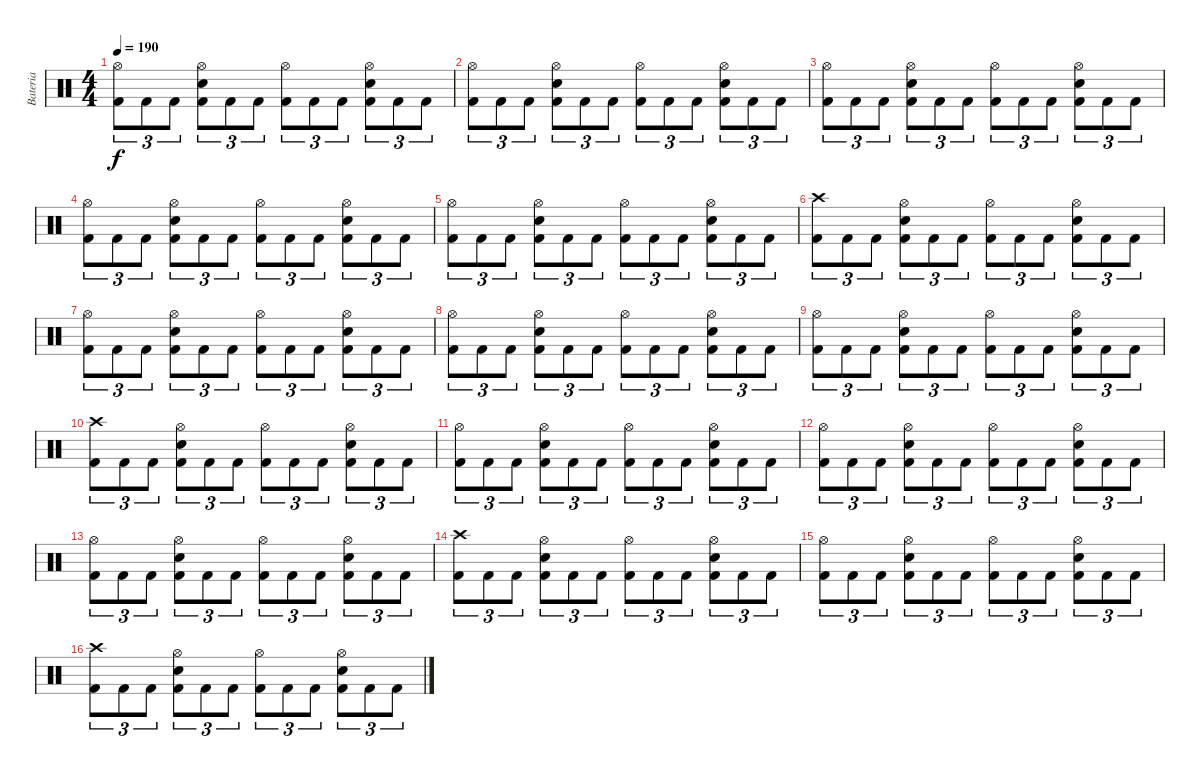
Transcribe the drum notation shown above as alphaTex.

\track ("Bateria" "Bateria") {instrument percussion}
\staff {score}
\articulation defaults
\ts (4 4)
\tempo 190
\clef neutral
\ks c
("Hi-Hat (open)" "Kick (hit) 2").8{tu (3 2) dy f} "Kick (hit) 2".8{tu (3 2)} "Kick (hit) 2".8{tu (3 2)} ("Hi-Hat (open)" "Electric Snare (hit)" "Kick (hit) 2").8{tu (3 2)} "Kick (hit) 2".8{tu (3 2)} "Kick (hit) 2".8{tu (3 2)} ("Hi-Hat (open)" "Kick (hit) 2").8{tu (3 2)} "Kick (hit) 2".8{tu (3 2)} "Kick (hit) 2".8{tu (3 2)} ("Hi-Hat (open)" "Electric Snare (hit)" "Kick (hit) 2").8{tu (3 2)} "Kick (hit) 2".8{tu (3 2)} "Kick (hit) 2".8{tu (3 2)} |
("Hi-Hat (open)" "Kick (hit) 2").8{tu (3 2)} "Kick (hit) 2".8{tu (3 2)} "Kick (hit) 2".8{tu (3 2)} ("Hi-Hat (open)" "Electric Snare (hit)" "Kick (hit) 2").8{tu (3 2)} "Kick (hit) 2".8{tu (3 2)} "Kick (hit) 2".8{tu (3 2)} ("Hi-Hat (open)" "Kick (hit) 2").8{tu (3 2)} "Kick (hit) 2".8{tu (3 2)} "Kick (hit) 2".8{tu (3 2)} ("Hi-Hat (open)" "Electric Snare (hit)" "Kick (hit) 2").8{tu (3 2)} "Kick (hit) 2".8{tu (3 2)} "Kick (hit) 2".8{tu (3 2)} |
("Hi-Hat (open)" "Kick (hit) 2").8{tu (3 2)} "Kick (hit) 2".8{tu (3 2)} "Kick (hit) 2".8{tu (3 2)} ("Hi-Hat (open)" "Electric Snare (hit)" "Kick (hit) 2").8{tu (3 2)} "Kick (hit) 2".8{tu (3 2)} "Kick (hit) 2".8{tu (3 2)} ("Hi-Hat (open)" "Kick (hit) 2").8{tu (3 2)} "Kick (hit) 2".8{tu (3 2)} "Kick (hit) 2".8{tu (3 2)} ("Hi-Hat (open)" "Electric Snare (hit)" "Kick (hit) 2").8{tu (3 2)} "Kick (hit) 2".8{tu (3 2)} "Kick (hit) 2".8{tu (3 2)} |
("Hi-Hat (open)" "Kick (hit) 2").8{tu (3 2)} "Kick (hit) 2".8{tu (3 2)} "Kick (hit) 2".8{tu (3 2)} ("Hi-Hat (open)" "Electric Snare (hit)" "Kick (hit) 2").8{tu (3 2)} "Kick (hit) 2".8{tu (3 2)} "Kick (hit) 2".8{tu (3 2)} ("Hi-Hat (open)" "Kick (hit) 2").8{tu (3 2)} "Kick (hit) 2".8{tu (3 2)} "Kick (hit) 2".8{tu (3 2)} ("Hi-Hat (open)" "Electric Snare (hit)" "Kick (hit) 2").8{tu (3 2)} "Kick (hit) 2".8{tu (3 2)} "Kick (hit) 2".8{tu (3 2)} |
("Hi-Hat (open)" "Kick (hit) 2").8{tu (3 2)} "Kick (hit) 2".8{tu (3 2)} "Kick (hit) 2".8{tu (3 2)} ("Hi-Hat (open)" "Electric Snare (hit)" "Kick (hit) 2").8{tu (3 2)} "Kick (hit) 2".8{tu (3 2)} "Kick (hit) 2".8{tu (3 2)} ("Hi-Hat (open)" "Kick (hit) 2").8{tu (3 2)} "Kick (hit) 2".8{tu (3 2)} "Kick (hit) 2".8{tu (3 2)} ("Hi-Hat (open)" "Electric Snare (hit)" "Kick (hit) 2").8{tu (3 2)} "Kick (hit) 2".8{tu (3 2)} "Kick (hit) 2".8{tu (3 2)} |
("Crash high (hit)" "Kick (hit) 2").8{tu (3 2)} "Kick (hit) 2".8{tu (3 2)} "Kick (hit) 2".8{tu (3 2)} ("Hi-Hat (open)" "Electric Snare (hit)" "Kick (hit) 2").8{tu (3 2)} "Kick (hit) 2".8{tu (3 2)} "Kick (hit) 2".8{tu (3 2)} ("Hi-Hat (open)" "Kick (hit) 2").8{tu (3 2)} "Kick (hit) 2".8{tu (3 2)} "Kick (hit) 2".8{tu (3 2)} ("Hi-Hat (open)" "Electric Snare (hit)" "Kick (hit) 2").8{tu (3 2)} "Kick (hit) 2".8{tu (3 2)} "Kick (hit) 2".8{tu (3 2)} |
("Hi-Hat (open)" "Kick (hit) 2").8{tu (3 2)} "Kick (hit) 2".8{tu (3 2)} "Kick (hit) 2".8{tu (3 2)} ("Hi-Hat (open)" "Electric Snare (hit)" "Kick (hit) 2").8{tu (3 2)} "Kick (hit) 2".8{tu (3 2)} "Kick (hit) 2".8{tu (3 2)} ("Hi-Hat (open)" "Kick (hit) 2").8{tu (3 2)} "Kick (hit) 2".8{tu (3 2)} "Kick (hit) 2".8{tu (3 2)} ("Hi-Hat (open)" "Electric Snare (hit)" "Kick (hit) 2").8{tu (3 2)} "Kick (hit) 2".8{tu (3 2)} "Kick (hit) 2".8{tu (3 2)} |
("Hi-Hat (open)" "Kick (hit) 2").8{tu (3 2)} "Kick (hit) 2".8{tu (3 2)} "Kick (hit) 2".8{tu (3 2)} ("Hi-Hat (open)" "Electric Snare (hit)" "Kick (hit) 2").8{tu (3 2)} "Kick (hit) 2".8{tu (3 2)} "Kick (hit) 2".8{tu (3 2)} ("Hi-Hat (open)" "Kick (hit) 2").8{tu (3 2)} "Kick (hit) 2".8{tu (3 2)} "Kick (hit) 2".8{tu (3 2)} ("Hi-Hat (open)" "Electric Snare (hit)" "Kick (hit) 2").8{tu (3 2)} "Kick (hit) 2".8{tu (3 2)} "Kick (hit) 2".8{tu (3 2)} |
("Hi-Hat (open)" "Kick (hit) 2").8{tu (3 2)} "Kick (hit) 2".8{tu (3 2)} "Kick (hit) 2".8{tu (3 2)} ("Hi-Hat (open)" "Electric Snare (hit)" "Kick (hit) 2").8{tu (3 2)} "Kick (hit) 2".8{tu (3 2)} "Kick (hit) 2".8{tu (3 2)} ("Hi-Hat (open)" "Kick (hit) 2").8{tu (3 2)} "Kick (hit) 2".8{tu (3 2)} "Kick (hit) 2".8{tu (3 2)} ("Hi-Hat (open)" "Electric Snare (hit)" "Kick (hit) 2").8{tu (3 2)} "Kick (hit) 2".8{tu (3 2)} "Kick (hit) 2".8{tu (3 2)} |
("Crash high (hit)" "Kick (hit) 2").8{tu (3 2)} "Kick (hit) 2".8{tu (3 2)} "Kick (hit) 2".8{tu (3 2)} ("Hi-Hat (open)" "Electric Snare (hit)" "Kick (hit) 2").8{tu (3 2)} "Kick (hit) 2".8{tu (3 2)} "Kick (hit) 2".8{tu (3 2)} ("Hi-Hat (open)" "Kick (hit) 2").8{tu (3 2)} "Kick (hit) 2".8{tu (3 2)} "Kick (hit) 2".8{tu (3 2)} ("Hi-Hat (open)" "Electric Snare (hit)" "Kick (hit) 2").8{tu (3 2)} "Kick (hit) 2".8{tu (3 2)} "Kick (hit) 2".8{tu (3 2)} |
("Hi-Hat (open)" "Kick (hit) 2").8{tu (3 2)} "Kick (hit) 2".8{tu (3 2)} "Kick (hit) 2".8{tu (3 2)} ("Hi-Hat (open)" "Electric Snare (hit)" "Kick (hit) 2").8{tu (3 2)} "Kick (hit) 2".8{tu (3 2)} "Kick (hit) 2".8{tu (3 2)} ("Hi-Hat (open)" "Kick (hit) 2").8{tu (3 2)} "Kick (hit) 2".8{tu (3 2)} "Kick (hit) 2".8{tu (3 2)} ("Hi-Hat (open)" "Electric Snare (hit)" "Kick (hit) 2").8{tu (3 2)} "Kick (hit) 2".8{tu (3 2)} "Kick (hit) 2".8{tu (3 2)} |
("Hi-Hat (open)" "Kick (hit) 2").8{tu (3 2)} "Kick (hit) 2".8{tu (3 2)} "Kick (hit) 2".8{tu (3 2)} ("Hi-Hat (open)" "Electric Snare (hit)" "Kick (hit) 2").8{tu (3 2)} "Kick (hit) 2".8{tu (3 2)} "Kick (hit) 2".8{tu (3 2)} ("Hi-Hat (open)" "Kick (hit) 2").8{tu (3 2)} "Kick (hit) 2".8{tu (3 2)} "Kick (hit) 2".8{tu (3 2)} ("Hi-Hat (open)" "Electric Snare (hit)" "Kick (hit) 2").8{tu (3 2)} "Kick (hit) 2".8{tu (3 2)} "Kick (hit) 2".8{tu (3 2)} |
("Hi-Hat (open)" "Kick (hit) 2").8{tu (3 2)} "Kick (hit) 2".8{tu (3 2)} "Kick (hit) 2".8{tu (3 2)} ("Hi-Hat (open)" "Electric Snare (hit)" "Kick (hit) 2").8{tu (3 2)} "Kick (hit) 2".8{tu (3 2)} "Kick (hit) 2".8{tu (3 2)} ("Hi-Hat (open)" "Kick (hit) 2").8{tu (3 2)} "Kick (hit) 2".8{tu (3 2)} "Kick (hit) 2".8{tu (3 2)} ("Hi-Hat (open)" "Electric Snare (hit)" "Kick (hit) 2").8{tu (3 2)} "Kick (hit) 2".8{tu (3 2)} "Kick (hit) 2".8{tu (3 2)} |
("Crash high (hit)" "Kick (hit) 2").8{tu (3 2)} "Kick (hit) 2".8{tu (3 2)} "Kick (hit) 2".8{tu (3 2)} ("Hi-Hat (open)" "Electric Snare (hit)" "Kick (hit) 2").8{tu (3 2)} "Kick (hit) 2".8{tu (3 2)} "Kick (hit) 2".8{tu (3 2)} ("Hi-Hat (open)" "Kick (hit) 2").8{tu (3 2)} "Kick (hit) 2".8{tu (3 2)} "Kick (hit) 2".8{tu (3 2)} ("Hi-Hat (open)" "Electric Snare (hit)" "Kick (hit) 2").8{tu (3 2)} "Kick (hit) 2".8{tu (3 2)} "Kick (hit) 2".8{tu (3 2)} |
("Hi-Hat (open)" "Kick (hit) 2").8{tu (3 2)} "Kick (hit) 2".8{tu (3 2)} "Kick (hit) 2".8{tu (3 2)} ("Hi-Hat (open)" "Electric Snare (hit)" "Kick (hit) 2").8{tu (3 2)} "Kick (hit) 2".8{tu (3 2)} "Kick (hit) 2".8{tu (3 2)} ("Hi-Hat (open)" "Kick (hit) 2").8{tu (3 2)} "Kick (hit) 2".8{tu (3 2)} "Kick (hit) 2".8{tu (3 2)} ("Hi-Hat (open)" "Electric Snare (hit)" "Kick (hit) 2").8{tu (3 2)} "Kick (hit) 2".8{tu (3 2)} "Kick (hit) 2".8{tu (3 2)} |
("Crash high (hit)" "Kick (hit) 2").8{tu (3 2)} "Kick (hit) 2".8{tu (3 2)} "Kick (hit) 2".8{tu (3 2)} ("Hi-Hat (open)" "Electric Snare (hit)" "Kick (hit) 2").8{tu (3 2)} "Kick (hit) 2".8{tu (3 2)} "Kick (hit) 2".8{tu (3 2)} ("Hi-Hat (open)" "Kick (hit) 2").8{tu (3 2)} "Kick (hit) 2".8{tu (3 2)} "Kick (hit) 2".8{tu (3 2)} ("Hi-Hat (open)" "Electric Snare (hit)" "Kick (hit) 2").8{tu (3 2)} "Kick (hit) 2".8{tu (3 2)} "Kick (hit) 2".8{tu (3 2)}
